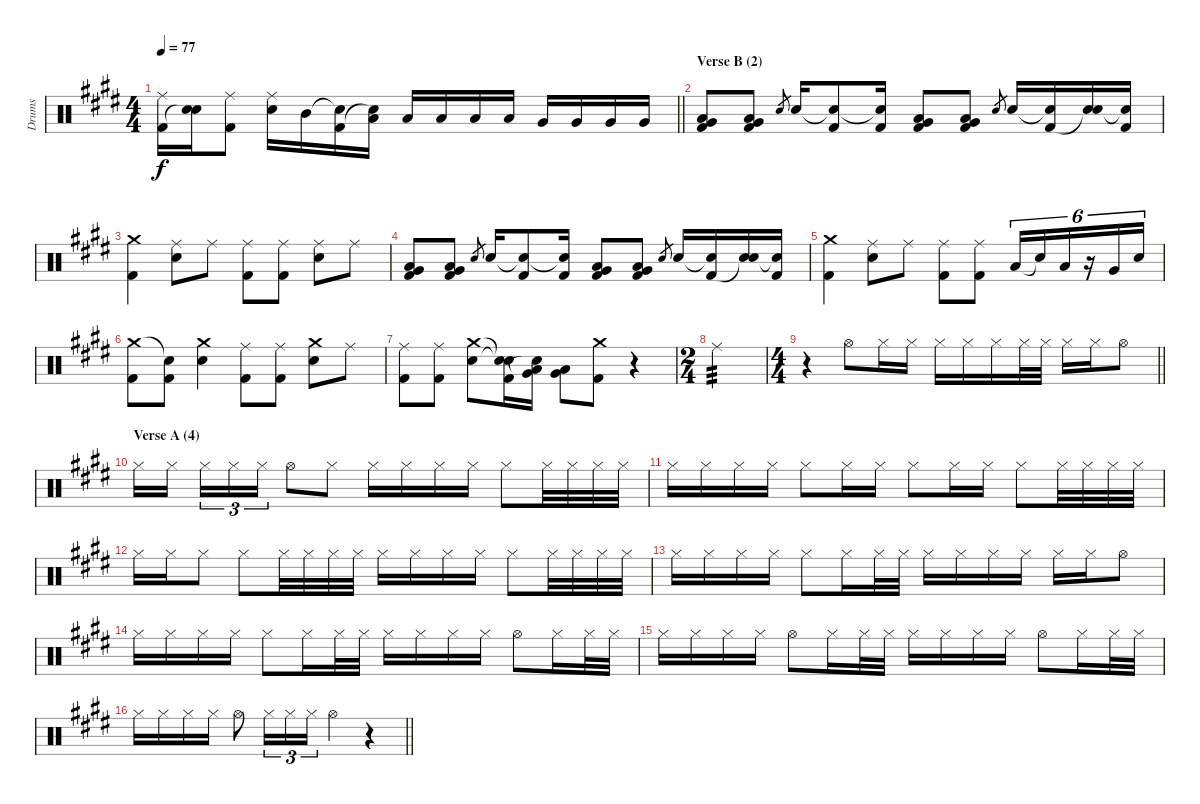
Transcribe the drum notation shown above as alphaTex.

\track ("Drums" "Drums") {instrument percussion}
\staff {score}
\articulation defaults
\ts (4 4)
\tempo 77
\clef neutral
\barLineRight lightlight
\ks e
("Ride (middle)" "Kick (hit) 2").16{dy f} ("Electric Snare (hit)" "Snare (hit)"{t}).16 ("Ride (middle)" "Kick (hit) 2").8 ("Ride (middle)" "Electric Snare (hit)").16 "Mid Tom (hit)".16 ("Snare (hit)"{t} "Kick (hit) 2").16 ("Low Tom (hit)" "Snare (hit)"{t}).16 "Low Tom (hit)".16 "Low Tom (hit)".16 "Low Tom (hit)".16 "Low Tom (hit)".16 "Very Low Tom (hit)".16 "Very Low Tom (hit)".16 "Very Low Tom (hit)".16 "Very Low Tom (hit)".16 |
\section ("" "Verse B (2)")
("Low Tom (hit)" "Very Low Tom (hit)" "Kick (hit) 2").8 ("Low Tom (hit)" "Very Low Tom (hit)" "Kick (hit) 2").8 "Electric Snare (hit)".8{gr} "Electric Snare (hit)".16 ("Snare (hit)"{t} "Kick (hit) 2").8 ("Snare (hit)"{t} "Kick (hit) 2").16 ("Low Tom (hit)" "Very Low Tom (hit)" "Kick (hit) 2").8 ("Low Tom (hit)" "Very Low Tom (hit)" "Kick (hit) 2").8 "Electric Snare (hit)".8{gr} "Electric Snare (hit)".16 ("Snare (hit)"{t} "Kick (hit) 2").16 ("Electric Snare (hit)" "Snare (hit)"{t}).16 ("Snare (hit)"{t} "Kick (hit) 2").16 |
("Crash medium (hit)" "Kick (hit) 2").4 ("Ride (middle)" "Electric Snare (hit)").8 "Ride (middle)".8 ("Ride (middle)" "Kick (hit) 2").8 ("Ride (middle)" "Kick (hit) 2").8 ("Ride (middle)" "Electric Snare (hit)").8 "Ride (middle)".8 |
("Low Tom (hit)" "Very Low Tom (hit)" "Kick (hit) 2").8 ("Low Tom (hit)" "Very Low Tom (hit)" "Kick (hit) 2").8 "Electric Snare (hit)".8{gr} "Electric Snare (hit)".16 ("Snare (hit)"{t} "Kick (hit) 2").8 ("Snare (hit)"{t} "Kick (hit) 2").16 ("Low Tom (hit)" "Very Low Tom (hit)" "Kick (hit) 2").8 ("Low Tom (hit)" "Very Low Tom (hit)" "Kick (hit) 2").8 "Electric Snare (hit)".8{gr} "Electric Snare (hit)".16 ("Snare (hit)"{t} "Kick (hit) 2").16 ("Electric Snare (hit)" "Snare (hit)"{t}).16 ("Snare (hit)"{t} "Kick (hit) 2").16 |
("Crash medium (hit)" "Kick (hit) 2").4 ("Ride (middle)" "Electric Snare (hit)").8 "Ride (middle)".8 ("Ride (middle)" "Kick (hit) 2").8 ("Ride (middle)" "Kick (hit) 2").8 "Low Tom (hit)".16{tu (6 4)} "Snare (hit)"{t}.16{tu (6 4)} "Low Tom (hit)".16{tu (6 4)} r.16{tu (6 4)} "Very Low Tom (hit)".16{tu (6 4)} "Electric Snare (hit)".16{tu (6 4)} |
("Crash medium (hit)" "Kick (hit) 2").8 ("Snare (hit)"{t} "Kick (hit) 2").8 ("Crash medium (hit)" "Electric Snare (hit)").4 ("Ride (middle)" "Kick (hit) 2").8 ("Ride (middle)" "Kick (hit) 2").8 ("Crash medium (hit)" "Electric Snare (hit)").8 "Ride (middle)".8 |
("Ride (middle)" "Kick (hit) 2").8 ("Ride (middle)" "Kick (hit) 2").8 ("Crash medium (hit)" "Electric Snare (hit)").8 ("Snare (hit)"{t} "Snare (hit)"{t} "Kick (hit) 2").16 ("Low Tom (hit)" "Very Low Tom (hit)" "Snare (hit)"{t}).16 ("Low Tom (hit)" "Very Low Tom (hit)").8 ("Crash medium (hit)" "Kick (hit) 2").8 r.4 |
\ts (2 4)
"Ride (middle)".2{tp 3} |
\ts (4 4)
\barLineRight lightlight
r.4 "Hi-Hat (open)".8 "Hi-Hat (closed)".16 "Hi-Hat (closed)".16 "Hi-Hat (closed)".16 "Hi-Hat (closed)".16 "Hi-Hat (closed)".16 "Hi-Hat (closed)".32 "Hi-Hat (closed)".32 "Hi-Hat (closed)".16 "Hi-Hat (closed)".16 "Hi-Hat (open)".8 |
\section ("" "Verse A (4)")
"Hi-Hat (closed)".16 "Hi-Hat (closed)".16 "Hi-Hat (closed)".16{tu (3 2)} "Hi-Hat (closed)".16{tu (3 2)} "Hi-Hat (closed)".16{tu (3 2)} "Hi-Hat (open)".8 "Hi-Hat (closed)".8 "Hi-Hat (closed)".16 "Hi-Hat (closed)".16 "Hi-Hat (closed)".16 "Hi-Hat (closed)".16 "Hi-Hat (closed)".8 "Hi-Hat (closed)".32 "Hi-Hat (closed)".32 "Hi-Hat (closed)".32 "Hi-Hat (closed)".32 |
"Hi-Hat (closed)".16 "Hi-Hat (closed)".16 "Hi-Hat (closed)".16 "Hi-Hat (closed)".16 "Hi-Hat (closed)".8 "Hi-Hat (closed)".16 "Hi-Hat (closed)".16 "Hi-Hat (closed)".8 "Hi-Hat (closed)".16 "Hi-Hat (closed)".16 "Hi-Hat (closed)".8 "Hi-Hat (closed)".32 "Hi-Hat (closed)".32 "Hi-Hat (closed)".32 "Hi-Hat (closed)".32 |
"Hi-Hat (closed)".16 "Hi-Hat (closed)".16 "Hi-Hat (closed)".8 "Hi-Hat (closed)".8 "Hi-Hat (closed)".32 "Hi-Hat (closed)".32 "Hi-Hat (closed)".32 "Hi-Hat (closed)".32 "Hi-Hat (closed)".16 "Hi-Hat (closed)".16 "Hi-Hat (closed)".16 "Hi-Hat (closed)".16 "Hi-Hat (closed)".8 "Hi-Hat (closed)".32 "Hi-Hat (closed)".32 "Hi-Hat (closed)".32 "Hi-Hat (closed)".32 |
"Hi-Hat (closed)".16 "Hi-Hat (closed)".16 "Hi-Hat (closed)".16 "Hi-Hat (closed)".16 "Hi-Hat (closed)".8 "Hi-Hat (closed)".16 "Hi-Hat (closed)".32 "Hi-Hat (closed)".32 "Hi-Hat (closed)".16 "Hi-Hat (closed)".16 "Hi-Hat (closed)".16 "Hi-Hat (closed)".16 "Hi-Hat (closed)".16 "Hi-Hat (closed)".16 "Hi-Hat (open)".8 |
"Hi-Hat (closed)".16 "Hi-Hat (closed)".16 "Hi-Hat (closed)".16 "Hi-Hat (closed)".16 "Hi-Hat (closed)".8 "Hi-Hat (closed)".16 "Hi-Hat (closed)".32 "Hi-Hat (closed)".32 "Hi-Hat (closed)".16 "Hi-Hat (closed)".16 "Hi-Hat (closed)".16 "Hi-Hat (closed)".16 "Hi-Hat (open)".8 "Hi-Hat (closed)".16 "Hi-Hat (closed)".32 "Hi-Hat (closed)".32 |
"Hi-Hat (closed)".16 "Hi-Hat (closed)".16 "Hi-Hat (closed)".16 "Hi-Hat (closed)".16 "Hi-Hat (open)".8 "Hi-Hat (closed)".16 "Hi-Hat (closed)".32 "Hi-Hat (closed)".32 "Hi-Hat (closed)".16 "Hi-Hat (closed)".16 "Hi-Hat (closed)".16 "Hi-Hat (closed)".16 "Hi-Hat (open)".8 "Hi-Hat (closed)".16 "Hi-Hat (closed)".32 "Hi-Hat (closed)".32 |
\barLineRight lightlight "Hi-Hat (closed)".16 "Hi-Hat (closed)".16 "Hi-Hat (closed)".16 "Hi-Hat (closed)".16 "Hi-Hat (open)".8 "Hi-Hat (closed)".16{tu (3 2)} "Hi-Hat (closed)".16{tu (3 2)} "Hi-Hat (closed)".16{tu (3 2)} "Hi-Hat (open)".4
r.4
